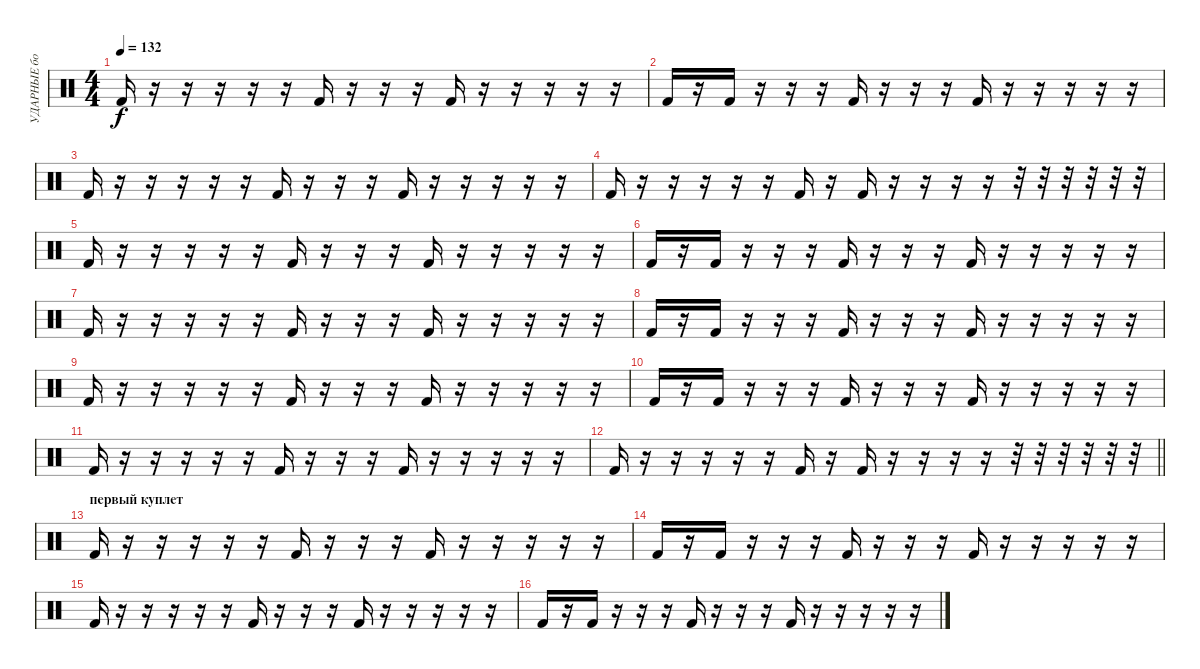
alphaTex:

\track ("УДАРНЫЕ бочка" "УДАРНЫЕ бо") {instrument percussion}
\staff {score}
\articulation defaults
\ts (4 4)
\tempo 132
\clef neutral
\ks c "Kick (hit) 2".16{dy f}
r.16 r.16 r.16 r.16 r.16 "Kick (hit) 2".16 r.16 r.16 r.16 "Kick (hit) 2".16 r.16 r.16 r.16 r.16 r.16 |
"Kick (hit) 2".16 r.16 "Kick (hit) 2".16 r.16 r.16 r.16 "Kick (hit) 2".16 r.16 r.16 r.16 "Kick (hit) 2".16 r.16 r.16 r.16 r.16 r.16 |
"Kick (hit) 2".16 r.16 r.16 r.16 r.16 r.16 "Kick (hit) 2".16 r.16 r.16 r.16 "Kick (hit) 2".16 r.16 r.16 r.16 r.16 r.16 |
"Kick (hit) 2".16 r.16 r.16 r.16 r.16 r.16 "Kick (hit) 2".16 r.16 "Kick (hit) 2".16 r.16 r.16 r.16 r.16 r.32 r.32 r.32 r.32 r.32 r.32 |
"Kick (hit) 2".16 r.16 r.16 r.16 r.16 r.16 "Kick (hit) 2".16 r.16 r.16 r.16 "Kick (hit) 2".16 r.16 r.16 r.16 r.16 r.16 |
"Kick (hit) 2".16 r.16 "Kick (hit) 2".16 r.16 r.16 r.16 "Kick (hit) 2".16 r.16 r.16 r.16 "Kick (hit) 2".16 r.16 r.16 r.16 r.16 r.16 |
"Kick (hit) 2".16 r.16 r.16 r.16 r.16 r.16 "Kick (hit) 2".16 r.16 r.16 r.16 "Kick (hit) 2".16 r.16 r.16 r.16 r.16 r.16 |
"Kick (hit) 2".16 r.16 "Kick (hit) 2".16 r.16 r.16 r.16 "Kick (hit) 2".16 r.16 r.16 r.16 "Kick (hit) 2".16 r.16 r.16 r.16 r.16 r.16 |
"Kick (hit) 2".16 r.16 r.16 r.16 r.16 r.16 "Kick (hit) 2".16 r.16 r.16 r.16 "Kick (hit) 2".16 r.16 r.16 r.16 r.16 r.16 |
"Kick (hit) 2".16 r.16 "Kick (hit) 2".16 r.16 r.16 r.16 "Kick (hit) 2".16 r.16 r.16 r.16 "Kick (hit) 2".16 r.16 r.16 r.16 r.16 r.16 |
"Kick (hit) 2".16 r.16 r.16 r.16 r.16 r.16 "Kick (hit) 2".16 r.16 r.16 r.16 "Kick (hit) 2".16 r.16 r.16 r.16 r.16 r.16 |
\barLineRight lightlight "Kick (hit) 2".16
r.16 r.16 r.16 r.16 r.16 "Kick (hit) 2".16 r.16 "Kick (hit) 2".16 r.16 r.16 r.16 r.16 r.32 r.32 r.32 r.32 r.32 r.32 |
\section ("" "первый куплет")
"Kick (hit) 2".16 r.16 r.16 r.16 r.16 r.16 "Kick (hit) 2".16 r.16 r.16 r.16 "Kick (hit) 2".16 r.16 r.16 r.16 r.16 r.16 |
"Kick (hit) 2".16 r.16 "Kick (hit) 2".16 r.16 r.16 r.16 "Kick (hit) 2".16 r.16 r.16 r.16 "Kick (hit) 2".16 r.16 r.16 r.16 r.16 r.16 |
"Kick (hit) 2".16 r.16 r.16 r.16 r.16 r.16 "Kick (hit) 2".16 r.16 r.16 r.16 "Kick (hit) 2".16 r.16 r.16 r.16 r.16 r.16 |
"Kick (hit) 2".16 r.16 "Kick (hit) 2".16 r.16 r.16 r.16 "Kick (hit) 2".16 r.16 r.16 r.16 "Kick (hit) 2".16 r.16 r.16 r.16 r.16 r.16
